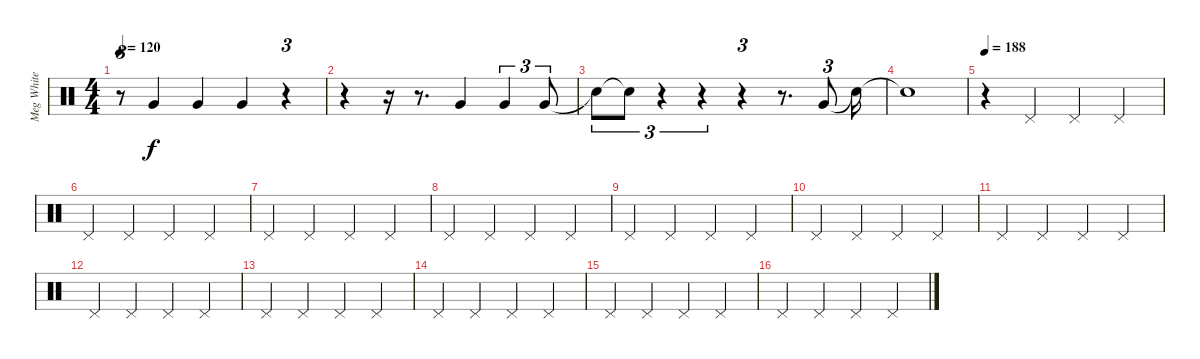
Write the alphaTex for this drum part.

\track ("Meg White" "Meg White") {instrument percussion}
\staff {score}
\articulation defaults
\ts (4 4)
\tempo 120
\clef neutral
\ks c
r.8{tu (3 2) dy f} "Very Low Tom (hit)".4 "Very Low Tom (hit)".4 "Very Low Tom (hit)".4 r.4{tu (3 2)} |
r.4 r.16 r.8{d} "Very Low Tom (hit)".4 "Very Low Tom (hit)".4{tu (3 2)} "Very Low Tom (hit)".8{tu (3 2)} |
"Snare (hit)"{t}.8{tu (3 2)} "Snare (hit)"{t}.8{tu (3 2)} r.4{tu (3 2)} r.4{tu (3 2)} r.4{tu (3 2)} r.8{d} "Very Low Tom (hit)".8{tu (3 2)} "Snare (hit)"{t}.16 |
"Snare (hit)"{t}.1 |
\tempo 188
r.4 "Pedal Hi-Hat (hit)".4 "Pedal Hi-Hat (hit)".4 "Pedal Hi-Hat (hit)".4 |
"Pedal Hi-Hat (hit)".4 "Pedal Hi-Hat (hit)".4 "Pedal Hi-Hat (hit)".4 "Pedal Hi-Hat (hit)".4 |
"Pedal Hi-Hat (hit)".4 "Pedal Hi-Hat (hit)".4 "Pedal Hi-Hat (hit)".4 "Pedal Hi-Hat (hit)".4 |
"Pedal Hi-Hat (hit)".4 "Pedal Hi-Hat (hit)".4 "Pedal Hi-Hat (hit)".4 "Pedal Hi-Hat (hit)".4 |
"Pedal Hi-Hat (hit)".4 "Pedal Hi-Hat (hit)".4 "Pedal Hi-Hat (hit)".4 "Pedal Hi-Hat (hit)".4 |
"Pedal Hi-Hat (hit)".4 "Pedal Hi-Hat (hit)".4 "Pedal Hi-Hat (hit)".4 "Pedal Hi-Hat (hit)".4 |
"Pedal Hi-Hat (hit)".4 "Pedal Hi-Hat (hit)".4 "Pedal Hi-Hat (hit)".4 "Pedal Hi-Hat (hit)".4 |
"Pedal Hi-Hat (hit)".4 "Pedal Hi-Hat (hit)".4 "Pedal Hi-Hat (hit)".4 "Pedal Hi-Hat (hit)".4 |
"Pedal Hi-Hat (hit)".4 "Pedal Hi-Hat (hit)".4 "Pedal Hi-Hat (hit)".4 "Pedal Hi-Hat (hit)".4 |
"Pedal Hi-Hat (hit)".4 "Pedal Hi-Hat (hit)".4 "Pedal Hi-Hat (hit)".4 "Pedal Hi-Hat (hit)".4 |
"Pedal Hi-Hat (hit)".4 "Pedal Hi-Hat (hit)".4 "Pedal Hi-Hat (hit)".4 "Pedal Hi-Hat (hit)".4 |
"Pedal Hi-Hat (hit)".4 "Pedal Hi-Hat (hit)".4 "Pedal Hi-Hat (hit)".4 "Pedal Hi-Hat (hit)".4
